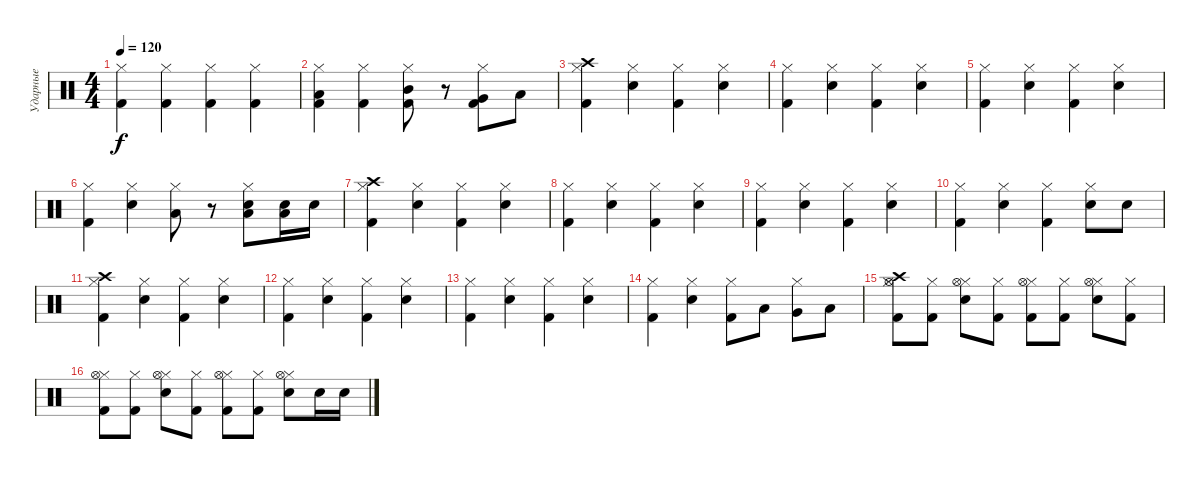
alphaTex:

\track ("Ударные" "Ударные") {instrument percussion}
\staff {score}
\articulation defaults
\ts (4 4)
\tempo 120
\clef neutral
\ks c
("Hi-Hat (closed)" "Kick (hit) 2").4{dy f} ("Hi-Hat (closed)" "Kick (hit) 2").4 ("Hi-Hat (closed)" "Kick (hit) 2").4 ("Hi-Hat (closed)" "Kick (hit) 2").4 |
("Hi-Hat (closed)" "Kick (hit) 2" "Low Tom (hit)").4 ("Hi-Hat (closed)" "Kick (hit) 2").4 ("Hi-Hat (closed)" "Kick (hit) 2" "Mid Tom (hit)").8 r.8 ("Kick (hit) 2" "Hi-Hat (closed)" "Very Low Tom (hit)").8 "Low Floor Tom (hit)".8 |
("Kick (hit) 2" "Crash high (hit)" "Hi-Hat (closed)").4 ("Electric Snare (hit)" "Hi-Hat (closed)").4 ("Kick (hit) 2" "Hi-Hat (closed)").4 ("Electric Snare (hit)" "Hi-Hat (closed)").4 |
("Kick (hit) 2" "Hi-Hat (closed)").4 ("Electric Snare (hit)" "Hi-Hat (closed)").4 ("Kick (hit) 2" "Hi-Hat (closed)").4 ("Electric Snare (hit)" "Hi-Hat (closed)").4 |
("Kick (hit) 2" "Hi-Hat (closed)").4 ("Electric Snare (hit)" "Hi-Hat (closed)").4 ("Kick (hit) 2" "Hi-Hat (closed)").4 ("Electric Snare (hit)" "Hi-Hat (closed)").4 |
("Kick (hit) 2" "Hi-Hat (closed)").4 ("Electric Snare (hit)" "Hi-Hat (closed)").4 ("Low Tom (hit)" "Hi-Hat (closed)").8 r.8 ("Low Tom (hit)" "Snare (hit) 2" "Hi-Hat (closed)").8 ("Low Tom (hit)" "Snare (hit) 2").16 "Snare (hit) 2".16 |
("Crash high (hit)" "Kick (hit) 2" "Hi-Hat (closed)").4 ("Electric Snare (hit)" "Hi-Hat (closed)").4 ("Kick (hit) 2" "Hi-Hat (closed)").4 ("Electric Snare (hit)" "Hi-Hat (closed)").4 |
("Kick (hit) 2" "Hi-Hat (closed)").4 ("Electric Snare (hit)" "Hi-Hat (closed)").4 ("Kick (hit) 2" "Hi-Hat (closed)").4 ("Electric Snare (hit)" "Hi-Hat (closed)").4 |
("Kick (hit) 2" "Hi-Hat (closed)").4 ("Electric Snare (hit)" "Hi-Hat (closed)").4 ("Kick (hit) 2" "Hi-Hat (closed)").4 ("Electric Snare (hit)" "Hi-Hat (closed)").4 |
("Hi-Hat (closed)" "Kick (hit) 2").4 ("Hi-Hat (closed)" "Electric Snare (hit)").4 ("Hi-Hat (closed)" "Kick (hit) 2").4 ("Hi-Hat (closed)" "Electric Snare (hit)").8 "Electric Snare (hit)".8 |
("Hi-Hat (closed)" "Crash high (hit)" "Kick (hit) 2").4 ("Hi-Hat (closed)" "Electric Snare (hit)").4 ("Hi-Hat (closed)" "Kick (hit) 2").4 ("Hi-Hat (closed)" "Electric Snare (hit)").4 |
("Hi-Hat (closed)" "Kick (hit) 2").4 ("Hi-Hat (closed)" "Electric Snare (hit)").4 ("Hi-Hat (closed)" "Kick (hit) 2").4 ("Hi-Hat (closed)" "Electric Snare (hit)").4 |
("Hi-Hat (closed)" "Kick (hit) 2").4 ("Hi-Hat (closed)" "Electric Snare (hit)").4 ("Hi-Hat (closed)" "Kick (hit) 2").4 ("Hi-Hat (closed)" "Electric Snare (hit)").4 |
("Hi-Hat (closed)" "Kick (hit) 2").4 ("Hi-Hat (closed)" "Electric Snare (hit)").4 ("Hi-Hat (closed)" "Kick (hit) 2").8 "Low Tom (hit)".8 ("Hi-Hat (closed)" "Very Low Tom (hit)").8 "Low Floor Tom (hit)".8 |
("Kick (hit) 2" "Hi-Hat (closed)" "Hi-Hat (open)" "Crash high (hit)").8 ("Kick (hit) 2" "Hi-Hat (closed)").8 ("Electric Snare (hit)" "Hi-Hat (closed)" "Hi-Hat (open)").8 ("Kick (hit) 2" "Hi-Hat (closed)").8 ("Kick (hit) 2" "Hi-Hat (closed)" "Hi-Hat (open)").8 ("Kick (hit) 2" "Hi-Hat (closed)").8 ("Electric Snare (hit)" "Hi-Hat (closed)" "Hi-Hat (open)").8 ("Kick (hit) 2" "Hi-Hat (closed)").8 |
("Kick (hit) 2" "Hi-Hat (closed)" "Hi-Hat (open)").8 ("Kick (hit) 2" "Hi-Hat (closed)").8 ("Electric Snare (hit)" "Hi-Hat (closed)" "Hi-Hat (open)").8 ("Kick (hit) 2" "Hi-Hat (closed)").8 ("Kick (hit) 2" "Hi-Hat (closed)" "Hi-Hat (open)").8 ("Kick (hit) 2" "Hi-Hat (closed)").8 ("Electric Snare (hit)" "Hi-Hat (closed)" "Hi-Hat (open)").8 "Electric Snare (hit)".16 "Electric Snare (hit)".16
